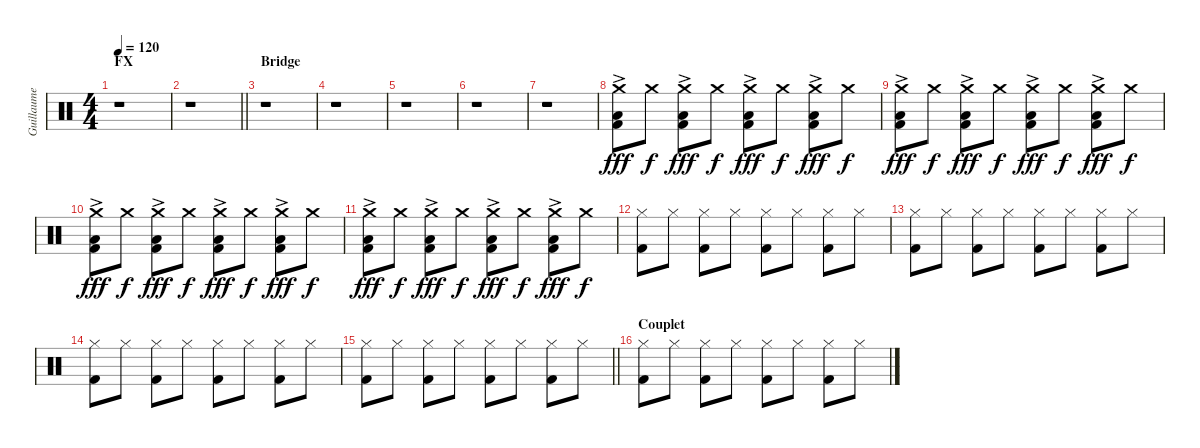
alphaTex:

\track ("Guillaume (batterie)" "Guillaume ") {instrument percussion}
\staff {score}
\articulation defaults
\ts (4 4)
\section ("" "FX")
\tempo 120
\clef neutral
\ks c
r.1{dy fff} |
\barLineRight lightlight
r.1 |
\section ("" "Bridge")
r.1 |
r.1 |
r.1 |
r.1 |
r.1 |
("Low Tom (hit)"{ac} "Crash medium (hit)" "Kick (hit) 2"{ac}).8 "Crash medium (hit)".8{dy f} ("Low Tom (hit)"{ac} "Crash medium (hit)" "Kick (hit) 2"{ac}).8{dy fff} "Crash medium (hit)".8{dy f} ("Low Tom (hit)"{ac} "Crash medium (hit)" "Kick (hit) 2"{ac}).8{dy fff} "Crash medium (hit)".8{dy f} ("Low Tom (hit)"{ac} "Crash medium (hit)" "Kick (hit) 2"{ac}).8{dy fff} "Crash medium (hit)".8{dy f} |
("Low Tom (hit)"{ac} "Crash medium (hit)" "Kick (hit) 2"{ac}).8{dy fff} "Crash medium (hit)".8{dy f} ("Low Tom (hit)"{ac} "Crash medium (hit)" "Kick (hit) 2"{ac}).8{dy fff} "Crash medium (hit)".8{dy f} ("Low Tom (hit)"{ac} "Crash medium (hit)" "Kick (hit) 2"{ac}).8{dy fff} "Crash medium (hit)".8{dy f} ("Low Tom (hit)"{ac} "Crash medium (hit)" "Kick (hit) 2"{ac}).8{dy fff} "Crash medium (hit)".8{dy f} |
("Low Tom (hit)"{ac} "Crash medium (hit)" "Kick (hit) 2"{ac}).8{dy fff} "Crash medium (hit)".8{dy f} ("Low Tom (hit)"{ac} "Crash medium (hit)" "Kick (hit) 2"{ac}).8{dy fff} "Crash medium (hit)".8{dy f} ("Low Tom (hit)"{ac} "Crash medium (hit)" "Kick (hit) 2"{ac}).8{dy fff} "Crash medium (hit)".8{dy f} ("Low Tom (hit)"{ac} "Crash medium (hit)" "Kick (hit) 2"{ac}).8{dy fff} "Crash medium (hit)".8{dy f} |
("Low Tom (hit)"{ac} "Crash medium (hit)" "Kick (hit) 2"{ac}).8{dy fff} "Crash medium (hit)".8{dy f} ("Low Tom (hit)"{ac} "Crash medium (hit)" "Kick (hit) 2"{ac}).8{dy fff} "Crash medium (hit)".8{dy f} ("Low Tom (hit)"{ac} "Crash medium (hit)" "Kick (hit) 2"{ac}).8{dy fff} "Crash medium (hit)".8{dy f} ("Low Tom (hit)"{ac} "Crash medium (hit)" "Kick (hit) 2"{ac}).8{dy fff} "Crash medium (hit)".8{dy f} |
("Hi-Hat (closed)" "Kick (hit) 2").8{volume 9} "Hi-Hat (closed)".8 ("Hi-Hat (closed)" "Kick (hit) 2").8 "Hi-Hat (closed)".8 ("Hi-Hat (closed)" "Kick (hit) 2").8 "Hi-Hat (closed)".8 ("Hi-Hat (closed)" "Kick (hit) 2").8 "Hi-Hat (closed)".8 |
("Hi-Hat (closed)" "Kick (hit) 2").8 "Hi-Hat (closed)".8 ("Hi-Hat (closed)" "Kick (hit) 2").8 "Hi-Hat (closed)".8 ("Hi-Hat (closed)" "Kick (hit) 2").8 "Hi-Hat (closed)".8 ("Hi-Hat (closed)" "Kick (hit) 2").8 "Hi-Hat (closed)".8 |
("Hi-Hat (closed)" "Kick (hit) 2").8 "Hi-Hat (closed)".8 ("Hi-Hat (closed)" "Kick (hit) 2").8 "Hi-Hat (closed)".8 ("Hi-Hat (closed)" "Kick (hit) 2").8 "Hi-Hat (closed)".8 ("Hi-Hat (closed)" "Kick (hit) 2").8 "Hi-Hat (closed)".8 |
\barLineRight lightlight
("Hi-Hat (closed)" "Kick (hit) 2").8 "Hi-Hat (closed)".8 ("Hi-Hat (closed)" "Kick (hit) 2").8 "Hi-Hat (closed)".8 ("Hi-Hat (closed)" "Kick (hit) 2").8 "Hi-Hat (closed)".8 ("Hi-Hat (closed)" "Kick (hit) 2").8 "Hi-Hat (closed)".8 |
\section ("" "Couplet")
("Hi-Hat (closed)" "Kick (hit) 2").8 "Hi-Hat (closed)".8 ("Hi-Hat (closed)" "Kick (hit) 2").8 "Hi-Hat (closed)".8 ("Hi-Hat (closed)" "Kick (hit) 2").8 "Hi-Hat (closed)".8 ("Hi-Hat (closed)" "Kick (hit) 2").8 "Hi-Hat (closed)".8
